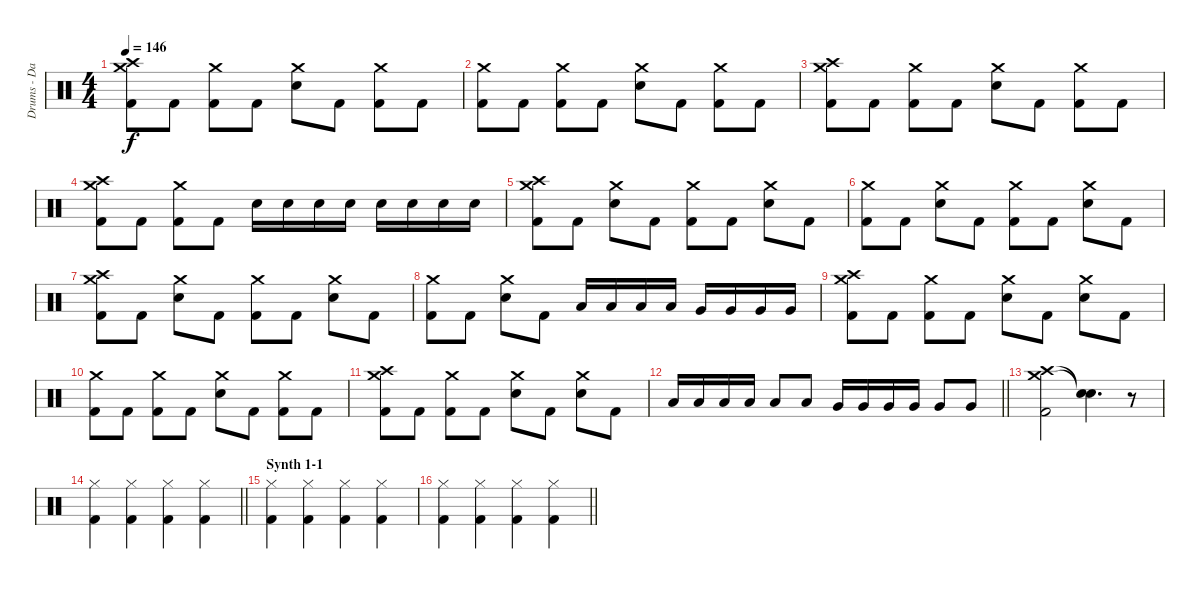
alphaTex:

\track ("Drums - DaDa" "Drums - Da") {instrument percussion}
\staff {score}
\articulation defaults
\ts (4 4)
\tempo 146
\clef neutral
\ks c
("Crash medium (hit)" "Crash high (hit)" "Kick (hit) 2").8{dy f} "Kick (hit) 2".8 ("Crash medium (hit)" "Kick (hit) 2").8 "Kick (hit) 2".8 ("Crash medium (hit)" "Electric Snare (hit)").8 "Kick (hit) 2".8 ("Crash medium (hit)" "Kick (hit) 2").8 "Kick (hit) 2".8 |
("Crash medium (hit)" "Kick (hit) 2").8 "Kick (hit) 2".8 ("Crash medium (hit)" "Kick (hit) 2").8 "Kick (hit) 2".8 ("Crash medium (hit)" "Electric Snare (hit)").8 "Kick (hit) 2".8 ("Crash medium (hit)" "Kick (hit) 2").8 "Kick (hit) 2".8 |
("Crash medium (hit)" "Crash high (hit)" "Kick (hit) 2").8 "Kick (hit) 2".8 ("Crash medium (hit)" "Kick (hit) 2").8 "Kick (hit) 2".8 ("Crash medium (hit)" "Electric Snare (hit)").8 "Kick (hit) 2".8 ("Crash medium (hit)" "Kick (hit) 2").8 "Kick (hit) 2".8 |
("Crash medium (hit)" "Crash high (hit)" "Kick (hit) 2").8 "Kick (hit) 2".8 ("Crash medium (hit)" "Kick (hit) 2").8 "Kick (hit) 2".8 "Electric Snare (hit)".16 "Electric Snare (hit)".16 "Electric Snare (hit)".16 "Electric Snare (hit)".16 "Electric Snare (hit)".16 "Electric Snare (hit)".16 "Electric Snare (hit)".16 "Electric Snare (hit)".16 |
("Crash medium (hit)" "Crash high (hit)" "Kick (hit) 2").8 "Kick (hit) 2".8 ("Crash medium (hit)" "Electric Snare (hit)").8 "Kick (hit) 2".8 ("Crash medium (hit)" "Kick (hit) 2").8 "Kick (hit) 2".8 ("Crash medium (hit)" "Electric Snare (hit)").8 "Kick (hit) 2".8 |
("Crash medium (hit)" "Kick (hit) 2").8 "Kick (hit) 2".8 ("Crash medium (hit)" "Electric Snare (hit)").8 "Kick (hit) 2".8 ("Crash medium (hit)" "Kick (hit) 2").8 "Kick (hit) 2".8 ("Crash medium (hit)" "Electric Snare (hit)").8 "Kick (hit) 2".8 |
("Crash medium (hit)" "Crash high (hit)" "Kick (hit) 2").8 "Kick (hit) 2".8 ("Crash medium (hit)" "Electric Snare (hit)").8 "Kick (hit) 2".8 ("Crash medium (hit)" "Kick (hit) 2").8 "Kick (hit) 2".8 ("Crash medium (hit)" "Electric Snare (hit)").8 "Kick (hit) 2".8 |
("Crash medium (hit)" "Kick (hit) 2").8 "Kick (hit) 2".8 ("Crash medium (hit)" "Electric Snare (hit)").8 "Kick (hit) 2".8 "Low Tom (hit)".16 "Low Tom (hit)".16 "Low Tom (hit)".16 "Low Tom (hit)".16 "Very Low Tom (hit)".16 "Very Low Tom (hit)".16 "Very Low Tom (hit)".16 "Very Low Tom (hit)".16 |
("Crash medium (hit)" "Crash high (hit)" "Kick (hit) 2").8 "Kick (hit) 2".8 ("Crash medium (hit)" "Kick (hit) 2").8 "Kick (hit) 2".8 ("Crash medium (hit)" "Electric Snare (hit)").8 "Kick (hit) 2".8 ("Crash medium (hit)" "Electric Snare (hit)").8 "Kick (hit) 2".8 |
("Crash medium (hit)" "Kick (hit) 2").8 "Kick (hit) 2".8 ("Crash medium (hit)" "Kick (hit) 2").8 "Kick (hit) 2".8 ("Crash medium (hit)" "Electric Snare (hit)").8 "Kick (hit) 2".8 ("Crash medium (hit)" "Kick (hit) 2").8 "Kick (hit) 2".8 |
("Crash medium (hit)" "Crash high (hit)" "Kick (hit) 2").8 "Kick (hit) 2".8 ("Crash medium (hit)" "Kick (hit) 2").8 "Kick (hit) 2".8 ("Crash medium (hit)" "Electric Snare (hit)").8 "Kick (hit) 2".8 ("Crash medium (hit)" "Electric Snare (hit)").8 "Kick (hit) 2".8 |
\barLineRight lightlight "Low Tom (hit)".16 "Low Tom (hit)".16 "Low Tom (hit)".16 "Low Tom (hit)".16 "Low Tom (hit)".8 "Low Tom (hit)".8 "Very Low Tom (hit)".16 "Very Low Tom (hit)".16 "Very Low Tom (hit)".16 "Very Low Tom (hit)".16 "Very Low Tom (hit)".8 "Very Low Tom (hit)".8
|
("Crash high (hit)" "Crash medium (hit)" "Kick (hit) 2").2 ("Snare (hit)"{t} "Snare (hit)"{t}).4{d} r.8{volume 0} |
\barLineRight lightlight
("Hi-Hat (closed)" "Kick (hit) 2").4{volume 13} ("Hi-Hat (closed)" "Kick (hit) 2").4 ("Hi-Hat (closed)" "Kick (hit) 2").4 ("Hi-Hat (closed)" "Kick (hit) 2").4 |
\section ("" "Synth 1-1")
("Hi-Hat (closed)" "Kick (hit) 2").4 ("Hi-Hat (closed)" "Kick (hit) 2").4 ("Hi-Hat (closed)" "Kick (hit) 2").4 ("Hi-Hat (closed)" "Kick (hit) 2").4 |
\barLineRight lightlight
("Hi-Hat (closed)" "Kick (hit) 2").4 ("Hi-Hat (closed)" "Kick (hit) 2").4 ("Hi-Hat (closed)" "Kick (hit) 2").4 ("Hi-Hat (closed)" "Kick (hit) 2").4
